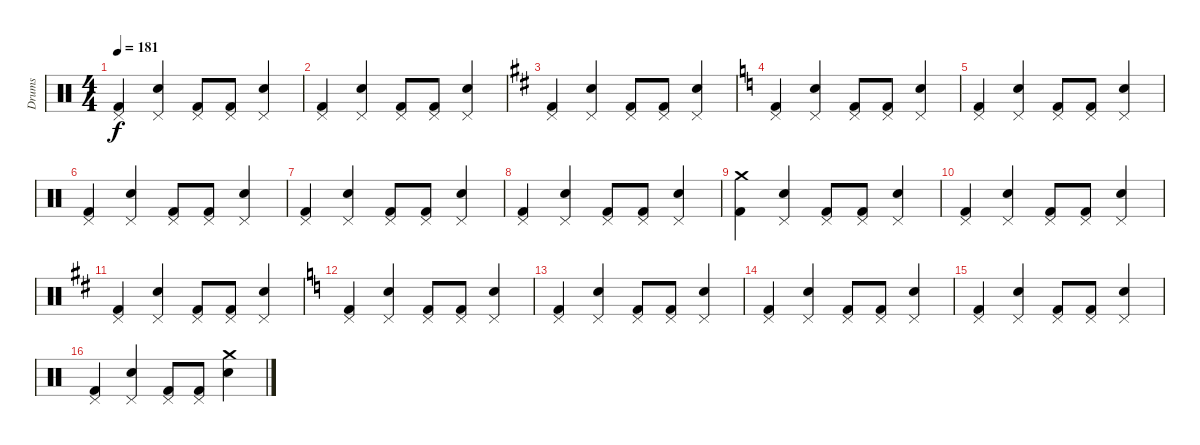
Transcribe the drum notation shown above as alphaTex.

\track ("Drums" "Drums") {instrument percussion}
\staff {score}
\articulation defaults
\ts (4 4)
\tempo 181
\clef neutral
\ks c
("Pedal Hi-Hat (hit)" "Kick (hit) 2").4{dy f} ("Pedal Hi-Hat (hit)" "Snare (hit) 2").4 ("Pedal Hi-Hat (hit)" "Kick (hit) 2").8 ("Pedal Hi-Hat (hit)" "Kick (hit) 2").8 ("Pedal Hi-Hat (hit)" "Snare (hit) 2").4 |
("Pedal Hi-Hat (hit)" "Kick (hit) 2").4 ("Pedal Hi-Hat (hit)" "Snare (hit) 2").4 ("Pedal Hi-Hat (hit)" "Kick (hit) 2").8 ("Pedal Hi-Hat (hit)" "Kick (hit) 2").8 ("Pedal Hi-Hat (hit)" "Snare (hit) 2").4 |
\ks d
("Pedal Hi-Hat (hit)" "Kick (hit) 2").4 ("Pedal Hi-Hat (hit)" "Snare (hit) 2").4 ("Pedal Hi-Hat (hit)" "Kick (hit) 2").8 ("Pedal Hi-Hat (hit)" "Kick (hit) 2").8 ("Pedal Hi-Hat (hit)" "Snare (hit) 2").4 |
\ks c
("Pedal Hi-Hat (hit)" "Kick (hit) 2").4 ("Pedal Hi-Hat (hit)" "Snare (hit) 2").4 ("Pedal Hi-Hat (hit)" "Kick (hit) 2").8 ("Pedal Hi-Hat (hit)" "Kick (hit) 2").8 ("Pedal Hi-Hat (hit)" "Snare (hit) 2").4 |
("Pedal Hi-Hat (hit)" "Kick (hit) 2").4 ("Pedal Hi-Hat (hit)" "Snare (hit) 2").4 ("Pedal Hi-Hat (hit)" "Kick (hit) 2").8 ("Pedal Hi-Hat (hit)" "Kick (hit) 2").8 ("Pedal Hi-Hat (hit)" "Snare (hit) 2").4 |
("Pedal Hi-Hat (hit)" "Kick (hit) 2").4 ("Pedal Hi-Hat (hit)" "Snare (hit) 2").4 ("Pedal Hi-Hat (hit)" "Kick (hit) 2").8 ("Pedal Hi-Hat (hit)" "Kick (hit) 2").8 ("Pedal Hi-Hat (hit)" "Snare (hit) 2").4 |
("Pedal Hi-Hat (hit)" "Kick (hit) 2").4 ("Pedal Hi-Hat (hit)" "Snare (hit) 2").4 ("Pedal Hi-Hat (hit)" "Kick (hit) 2").8 ("Pedal Hi-Hat (hit)" "Kick (hit) 2").8 ("Pedal Hi-Hat (hit)" "Snare (hit) 2").4 |
("Pedal Hi-Hat (hit)" "Kick (hit) 2").4 ("Pedal Hi-Hat (hit)" "Snare (hit) 2").4 ("Pedal Hi-Hat (hit)" "Kick (hit) 2").8 ("Pedal Hi-Hat (hit)" "Kick (hit) 2").8 ("Pedal Hi-Hat (hit)" "Snare (hit) 2").4 |
("Crash medium (hit)" "Kick (hit) 2").4 ("Pedal Hi-Hat (hit)" "Snare (hit) 2").4 ("Pedal Hi-Hat (hit)" "Kick (hit) 2").8 ("Pedal Hi-Hat (hit)" "Kick (hit) 2").8 ("Pedal Hi-Hat (hit)" "Snare (hit) 2").4 |
("Pedal Hi-Hat (hit)" "Kick (hit) 2").4 ("Pedal Hi-Hat (hit)" "Snare (hit) 2").4 ("Pedal Hi-Hat (hit)" "Kick (hit) 2").8 ("Pedal Hi-Hat (hit)" "Kick (hit) 2").8 ("Pedal Hi-Hat (hit)" "Snare (hit) 2").4 |
\ks d
("Pedal Hi-Hat (hit)" "Kick (hit) 2").4 ("Pedal Hi-Hat (hit)" "Snare (hit) 2").4 ("Pedal Hi-Hat (hit)" "Kick (hit) 2").8 ("Pedal Hi-Hat (hit)" "Kick (hit) 2").8 ("Pedal Hi-Hat (hit)" "Snare (hit) 2").4 |
\ks c
("Pedal Hi-Hat (hit)" "Kick (hit) 2").4 ("Pedal Hi-Hat (hit)" "Snare (hit) 2").4 ("Pedal Hi-Hat (hit)" "Kick (hit) 2").8 ("Pedal Hi-Hat (hit)" "Kick (hit) 2").8 ("Pedal Hi-Hat (hit)" "Snare (hit) 2").4 |
("Pedal Hi-Hat (hit)" "Kick (hit) 2").4 ("Pedal Hi-Hat (hit)" "Snare (hit) 2").4 ("Pedal Hi-Hat (hit)" "Kick (hit) 2").8 ("Pedal Hi-Hat (hit)" "Kick (hit) 2").8 ("Pedal Hi-Hat (hit)" "Snare (hit) 2").4 |
("Pedal Hi-Hat (hit)" "Kick (hit) 2").4 ("Pedal Hi-Hat (hit)" "Snare (hit) 2").4 ("Pedal Hi-Hat (hit)" "Kick (hit) 2").8 ("Pedal Hi-Hat (hit)" "Kick (hit) 2").8 ("Pedal Hi-Hat (hit)" "Snare (hit) 2").4 |
("Pedal Hi-Hat (hit)" "Kick (hit) 2").4 ("Pedal Hi-Hat (hit)" "Snare (hit) 2").4 ("Pedal Hi-Hat (hit)" "Kick (hit) 2").8 ("Pedal Hi-Hat (hit)" "Kick (hit) 2").8 ("Pedal Hi-Hat (hit)" "Snare (hit) 2").4 |
("Pedal Hi-Hat (hit)" "Kick (hit) 2").4 ("Pedal Hi-Hat (hit)" "Snare (hit) 2").4 ("Pedal Hi-Hat (hit)" "Kick (hit) 2").8 ("Pedal Hi-Hat (hit)" "Kick (hit) 2").8 ("Crash medium (hit)" "Snare (hit) 2").4
